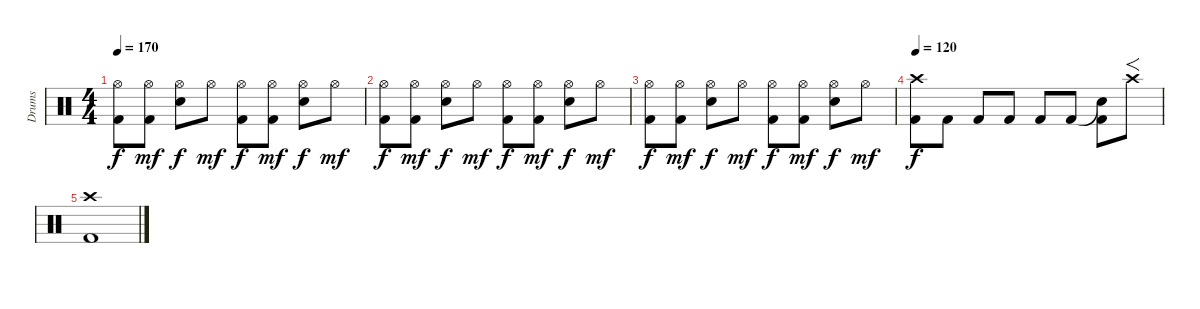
\track ("Drums" "Drums") {instrument percussion}
\staff {score}
\articulation defaults
\ts (4 4)
\tempo 170
\clef neutral
\ks c
("Hi-Hat (open)" "Kick (hit) 2").8{dy f} ("Hi-Hat (open)" "Kick (hit) 2").8{dy mf} ("Hi-Hat (open)" "Electric Snare (hit)").8{dy f} "Hi-Hat (open)".8{dy mf} ("Hi-Hat (open)" "Kick (hit) 2").8{dy f} ("Hi-Hat (open)" "Kick (hit) 2").8{dy mf} ("Hi-Hat (open)" "Electric Snare (hit)").8{dy f} "Hi-Hat (open)".8{dy mf} |
("Hi-Hat (open)" "Kick (hit) 2").8{dy f} ("Hi-Hat (open)" "Kick (hit) 2").8{dy mf} ("Hi-Hat (open)" "Electric Snare (hit)").8{dy f} "Hi-Hat (open)".8{dy mf} ("Hi-Hat (open)" "Kick (hit) 2").8{dy f} ("Hi-Hat (open)" "Kick (hit) 2").8{dy mf} ("Hi-Hat (open)" "Electric Snare (hit)").8{dy f} "Hi-Hat (open)".8{dy mf} |
("Hi-Hat (open)" "Kick (hit) 2").8{dy f} ("Hi-Hat (open)" "Kick (hit) 2").8{dy mf} ("Hi-Hat (open)" "Electric Snare (hit)").8{dy f} "Hi-Hat (open)".8{dy mf} ("Hi-Hat (open)" "Kick (hit) 2").8{dy f} ("Hi-Hat (open)" "Kick (hit) 2").8{dy mf} ("Hi-Hat (open)" "Electric Snare (hit)").8{dy f} "Hi-Hat (open)".8{dy mf} |
\tempo 120
("Crash high (hit)" "Kick (hit) 2").8{dy f} "Kick (hit) 2".8 "Kick (hit) 2".8 "Kick (hit) 2".8 "Kick (hit) 2".8 "Kick (hit) 2".8 ("Snare (hit)"{t} "Kick (hit) 2").8 "Crash high (hit)".8{f} |
("Crash high (hit)" "Kick (hit) 2").1
